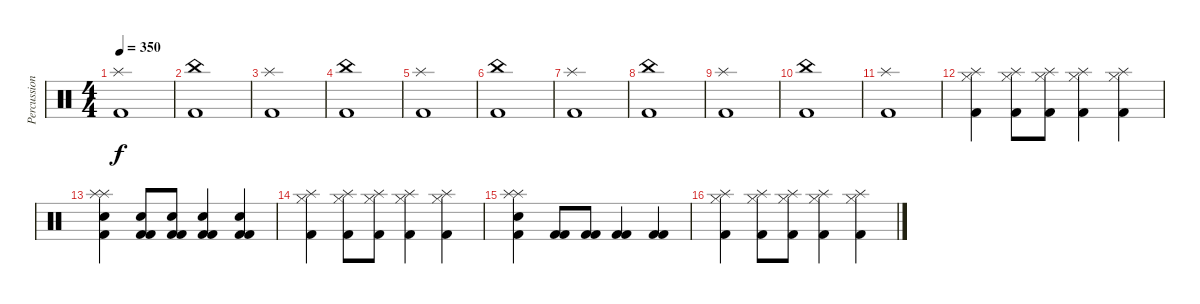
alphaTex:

\track ("Percussions2" "Percussion") {instrument percussion}
\staff {score}
\articulation defaults
\ts (4 4)
\tempo 350
\clef neutral
\ks c
("Splash (hit)" "Kick (hit) 2").1{dy f} |
("China (hit)" "Kick (hit) 2").1 |
("Splash (hit)" "Kick (hit) 2").1 |
("China (hit)" "Kick (hit) 2").1 |
("Splash (hit)" "Kick (hit) 2").1 |
("China (hit)" "Kick (hit) 2").1 |
("Splash (hit)" "Kick (hit) 2").1 |
("China (hit)" "Kick (hit) 2").1 |
("Splash (hit)" "Kick (hit) 2").1 |
("China (hit)" "Kick (hit) 2").1 |
("Splash (hit)" "Kick (hit) 2").1 |
("Hi-Hat (closed)" "Kick (hit) 2" "Splash (hit)").4 ("Hi-Hat (closed)" "Kick (hit) 2" "Splash (hit)").8 ("Hi-Hat (closed)" "Kick (hit) 2" "Splash (hit)").8 ("Hi-Hat (closed)" "Kick (hit) 2" "Splash (hit)").4 ("Hi-Hat (closed)" "Kick (hit) 2" "Splash (hit)").4 |
("Kick (hit) 2" "Snare (hit) 2" "Splash (hit)" "Splash (hit)").4 ("Kick (hit) 2" "Kick (hit) 2" "Snare (hit) 2").8 ("Kick (hit) 2" "Kick (hit) 2" "Snare (hit) 2").8 ("Kick (hit) 2" "Kick (hit) 2" "Snare (hit) 2").4 ("Kick (hit) 2" "Kick (hit) 2" "Snare (hit) 2").4 |
("Hi-Hat (closed)" "Kick (hit) 2" "Splash (hit)").4 ("Hi-Hat (closed)" "Kick (hit) 2" "Splash (hit)").8 ("Hi-Hat (closed)" "Kick (hit) 2" "Splash (hit)").8 ("Hi-Hat (closed)" "Kick (hit) 2" "Splash (hit)").4 ("Hi-Hat (closed)" "Kick (hit) 2" "Splash (hit)").4 |
("Kick (hit) 2" "Snare (hit) 2" "Splash (hit)" "Splash (hit)").4 ("Kick (hit) 2" "Kick (hit) 2").8 ("Kick (hit) 2" "Kick (hit) 2").8 ("Kick (hit) 2" "Kick (hit) 2").4 ("Kick (hit) 2" "Kick (hit) 2").4 |
("Hi-Hat (closed)" "Kick (hit) 2" "Splash (hit)").4 ("Hi-Hat (closed)" "Kick (hit) 2" "Splash (hit)").8 ("Hi-Hat (closed)" "Kick (hit) 2" "Splash (hit)").8 ("Hi-Hat (closed)" "Kick (hit) 2" "Splash (hit)").4 ("Hi-Hat (closed)" "Kick (hit) 2" "Splash (hit)").4
